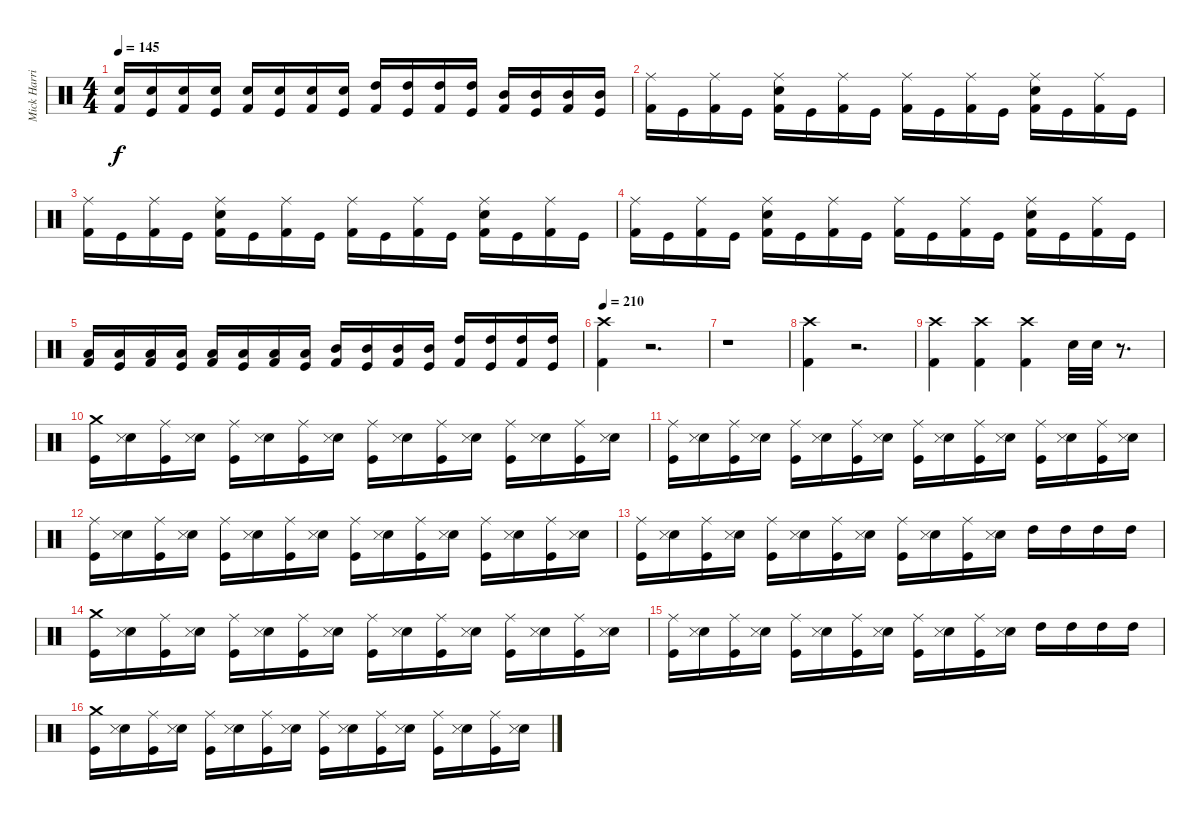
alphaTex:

\track ("Mick Harris (Drums)" "Mick Harri") {instrument percussion}
\staff {score}
\articulation defaults
\ts (4 4)
\tempo 145
\clef neutral
\ks c
("Kick (hit) 2" "Electric Snare (hit)").16{dy f} ("Kick (hit)" "Electric Snare (hit)").16 ("Kick (hit) 2" "Electric Snare (hit)").16 ("Kick (hit)" "Electric Snare (hit)").16 ("Kick (hit) 2" "Electric Snare (hit)").16 ("Kick (hit)" "Electric Snare (hit)").16 ("Kick (hit) 2" "Electric Snare (hit)").16 ("Kick (hit)" "Electric Snare (hit)").16 ("Kick (hit) 2" "High Tom (hit)").16 ("Kick (hit)" "High Tom (hit)").16 ("Kick (hit) 2" "High Tom (hit)").16 ("Kick (hit)" "High Tom (hit)").16 ("Kick (hit) 2" "Mid Tom (hit)").16 ("Kick (hit)" "Mid Tom (hit)").16 ("Kick (hit) 2" "Mid Tom (hit)").16 ("Kick (hit)" "Mid Tom (hit)").16 |
("Kick (hit) 2" "Ride (middle)").16 "Kick (hit)".16 ("Kick (hit) 2" "Ride (middle)").16 "Kick (hit)".16 ("Kick (hit) 2" "Electric Snare (hit)" "Ride (middle)").16 "Kick (hit)".16 ("Kick (hit) 2" "Ride (middle)").16 "Kick (hit)".16 ("Kick (hit) 2" "Ride (middle)").16 "Kick (hit)".16 ("Kick (hit) 2" "Ride (middle)").16 "Kick (hit)".16 ("Kick (hit) 2" "Electric Snare (hit)" "Ride (middle)").16 "Kick (hit)".16 ("Kick (hit) 2" "Ride (middle)").16 "Kick (hit)".16 |
("Kick (hit) 2" "Ride (middle)").16 "Kick (hit)".16 ("Kick (hit) 2" "Ride (middle)").16 "Kick (hit)".16 ("Kick (hit) 2" "Electric Snare (hit)" "Ride (middle)").16 "Kick (hit)".16 ("Kick (hit) 2" "Ride (middle)").16 "Kick (hit)".16 ("Kick (hit) 2" "Ride (middle)").16 "Kick (hit)".16 ("Kick (hit) 2" "Ride (middle)").16 "Kick (hit)".16 ("Kick (hit) 2" "Electric Snare (hit)" "Ride (middle)").16 "Kick (hit)".16 ("Kick (hit) 2" "Ride (middle)").16 "Kick (hit)".16 |
("Kick (hit) 2" "Ride (middle)").16 "Kick (hit)".16 ("Kick (hit) 2" "Ride (middle)").16 "Kick (hit)".16 ("Kick (hit) 2" "Electric Snare (hit)" "Ride (middle)").16 "Kick (hit)".16 ("Kick (hit) 2" "Ride (middle)").16 "Kick (hit)".16 ("Kick (hit) 2" "Ride (middle)").16 "Kick (hit)".16 ("Kick (hit) 2" "Ride (middle)").16 "Kick (hit)".16 ("Kick (hit) 2" "Electric Snare (hit)" "Ride (middle)").16 "Kick (hit)".16 ("Kick (hit) 2" "Ride (middle)").16 "Kick (hit)".16 |
("Kick (hit) 2" "Low Tom (hit)").16 ("Kick (hit)" "Low Tom (hit)").16 ("Kick (hit) 2" "Low Tom (hit)").16 ("Kick (hit)" "Low Tom (hit)").16 ("Kick (hit) 2" "Low Tom (hit)").16 ("Kick (hit)" "Low Tom (hit)").16 ("Kick (hit) 2" "Low Tom (hit)").16 ("Kick (hit)" "Low Tom (hit)").16 ("Kick (hit) 2" "Mid Tom (hit)").16 ("Kick (hit)" "Mid Tom (hit)").16 ("Kick (hit) 2" "Mid Tom (hit)").16 ("Kick (hit)" "Mid Tom (hit)").16 ("Kick (hit) 2" "High Tom (hit)").16 ("Kick (hit)" "High Tom (hit)").16 ("Kick (hit) 2" "High Tom (hit)").16 ("Kick (hit)" "High Tom (hit)").16 |
\tempo 210
("Kick (hit) 2" "Crash high (hit)").4 r.2{d} |
r.1 |
("Kick (hit) 2" "Crash high (hit)").4 r.2{d} |
("Kick (hit) 2" "Crash high (hit)").4 ("Kick (hit) 2" "Crash high (hit)").4 ("Kick (hit) 2" "Crash high (hit)").4 "Electric Snare (hit)".32 "Electric Snare (hit)".32 r.8{d} |
("Kick (hit)" "Crash medium (hit)").16 ("Electric Snare (hit)" "Snare (side stick) 3").16 ("Kick (hit)" "Ride (middle)").16 ("Electric Snare (hit)" "Snare (side stick) 3").16 ("Kick (hit)" "Ride (middle)").16 ("Electric Snare (hit)" "Snare (side stick) 3").16 ("Kick (hit)" "Ride (middle)").16 ("Electric Snare (hit)" "Snare (side stick) 3").16 ("Kick (hit)" "Ride (middle)").16 ("Electric Snare (hit)" "Snare (side stick) 3").16 ("Kick (hit)" "Ride (middle)").16 ("Electric Snare (hit)" "Snare (side stick) 3").16 ("Kick (hit)" "Ride (middle)").16 ("Electric Snare (hit)" "Snare (side stick) 3").16 ("Kick (hit)" "Ride (middle)").16 ("Electric Snare (hit)" "Snare (side stick) 3").16 |
("Kick (hit)" "Ride (middle)").16 ("Electric Snare (hit)" "Snare (side stick) 3").16 ("Kick (hit)" "Ride (middle)").16 ("Electric Snare (hit)" "Snare (side stick) 3").16 ("Kick (hit)" "Ride (middle)").16 ("Electric Snare (hit)" "Snare (side stick) 3").16 ("Kick (hit)" "Ride (middle)").16 ("Electric Snare (hit)" "Snare (side stick) 3").16 ("Kick (hit)" "Ride (middle)").16 ("Electric Snare (hit)" "Snare (side stick) 3").16 ("Kick (hit)" "Ride (middle)").16 ("Electric Snare (hit)" "Snare (side stick) 3").16 ("Kick (hit)" "Ride (middle)").16 ("Electric Snare (hit)" "Snare (side stick) 3").16 ("Kick (hit)" "Ride (middle)").16 ("Electric Snare (hit)" "Snare (side stick) 3").16 |
("Kick (hit)" "Ride (middle)").16 ("Electric Snare (hit)" "Snare (side stick) 3").16 ("Kick (hit)" "Ride (middle)").16 ("Electric Snare (hit)" "Snare (side stick) 3").16 ("Kick (hit)" "Ride (middle)").16 ("Electric Snare (hit)" "Snare (side stick) 3").16 ("Kick (hit)" "Ride (middle)").16 ("Electric Snare (hit)" "Snare (side stick) 3").16 ("Kick (hit)" "Ride (middle)").16 ("Electric Snare (hit)" "Snare (side stick) 3").16 ("Kick (hit)" "Ride (middle)").16 ("Electric Snare (hit)" "Snare (side stick) 3").16 ("Kick (hit)" "Ride (middle)").16 ("Electric Snare (hit)" "Snare (side stick) 3").16 ("Kick (hit)" "Ride (middle)").16 ("Electric Snare (hit)" "Snare (side stick) 3").16 |
("Kick (hit)" "Ride (middle)").16 ("Electric Snare (hit)" "Snare (side stick) 3").16 ("Kick (hit)" "Ride (middle)").16 ("Electric Snare (hit)" "Snare (side stick) 3").16 ("Kick (hit)" "Ride (middle)").16 ("Electric Snare (hit)" "Snare (side stick) 3").16 ("Kick (hit)" "Ride (middle)").16 ("Electric Snare (hit)" "Snare (side stick) 3").16 ("Kick (hit)" "Ride (middle)").16 ("Electric Snare (hit)" "Snare (side stick) 3").16 ("Kick (hit)" "Ride (middle)").16 ("Electric Snare (hit)" "Snare (side stick) 3").16 "High Tom (hit)".16 "High Tom (hit)".16 "High Tom (hit)".16 "High Tom (hit)".16 |
("Kick (hit)" "Crash medium (hit)").16 ("Electric Snare (hit)" "Snare (side stick) 3").16 ("Kick (hit)" "Ride (middle)").16 ("Electric Snare (hit)" "Snare (side stick) 3").16 ("Kick (hit)" "Ride (middle)").16 ("Electric Snare (hit)" "Snare (side stick) 3").16 ("Kick (hit)" "Ride (middle)").16 ("Electric Snare (hit)" "Snare (side stick) 3").16 ("Kick (hit)" "Ride (middle)").16 ("Electric Snare (hit)" "Snare (side stick) 3").16 ("Kick (hit)" "Ride (middle)").16 ("Electric Snare (hit)" "Snare (side stick) 3").16 ("Kick (hit)" "Ride (middle)").16 ("Electric Snare (hit)" "Snare (side stick) 3").16 ("Kick (hit)" "Ride (middle)").16 ("Electric Snare (hit)" "Snare (side stick) 3").16 |
("Kick (hit)" "Ride (middle)").16 ("Electric Snare (hit)" "Snare (side stick) 3").16 ("Kick (hit)" "Ride (middle)").16 ("Electric Snare (hit)" "Snare (side stick) 3").16 ("Kick (hit)" "Ride (middle)").16 ("Electric Snare (hit)" "Snare (side stick) 3").16 ("Kick (hit)" "Ride (middle)").16 ("Electric Snare (hit)" "Snare (side stick) 3").16 ("Kick (hit)" "Ride (middle)").16 ("Electric Snare (hit)" "Snare (side stick) 3").16 ("Kick (hit)" "Ride (middle)").16 ("Electric Snare (hit)" "Snare (side stick) 3").16 "High Tom (hit)".16 "High Tom (hit)".16 "High Tom (hit)".16 "High Tom (hit)".16 |
("Kick (hit)" "Crash medium (hit)").16 ("Electric Snare (hit)" "Snare (side stick) 3").16 ("Kick (hit)" "Ride (middle)").16 ("Electric Snare (hit)" "Snare (side stick) 3").16 ("Kick (hit)" "Ride (middle)").16 ("Electric Snare (hit)" "Snare (side stick) 3").16 ("Kick (hit)" "Ride (middle)").16 ("Electric Snare (hit)" "Snare (side stick) 3").16 ("Kick (hit)" "Ride (middle)").16 ("Electric Snare (hit)" "Snare (side stick) 3").16 ("Kick (hit)" "Ride (middle)").16 ("Electric Snare (hit)" "Snare (side stick) 3").16 ("Kick (hit)" "Ride (middle)").16 ("Electric Snare (hit)" "Snare (side stick) 3").16 ("Kick (hit)" "Ride (middle)").16 ("Electric Snare (hit)" "Snare (side stick) 3").16
